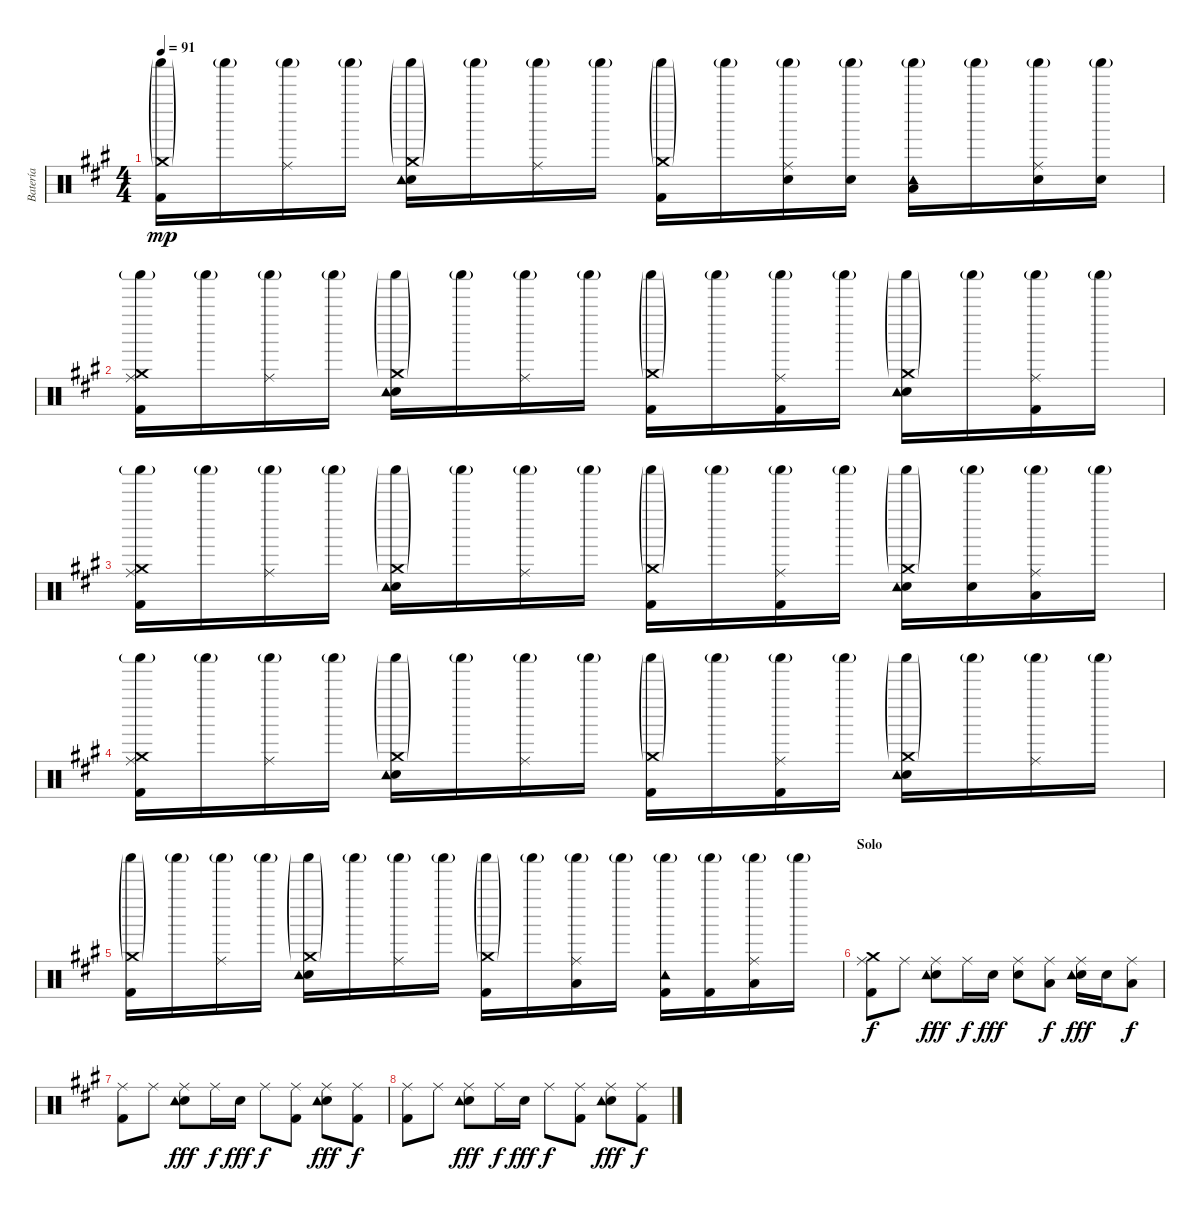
\track ("Batería" "Batería") {instrument percussion}
\staff {score}
\articulation defaults
\ts (4 4)
\tempo 91
\clef neutral
\ks a
("Kick (hit) 2" "Crash medium (hit)"{g} "Shaker (hit)"{g}).16{dy mp} "Shaker (hit)"{g}.16 ("Ride (middle)" "Shaker (hit)"{g}).16 "Shaker (hit)"{g}.16 ("Electric Snare (hit)" "Crash medium (hit)"{g} "Tambourine (hit)" "Shaker (hit)"{g}).16 "Shaker (hit)"{g}.16 ("Ride (middle)" "Shaker (hit)"{g}).16 "Shaker (hit)"{g}.16 ("Kick (hit) 2" "Crash medium (hit)"{g} "Shaker (hit)"{g}).16 "Shaker (hit)"{g}.16 ("Electric Snare (hit)" "Ride (middle)" "Shaker (hit)"{g}).16 ("Electric Snare (hit)" "Shaker (hit)"{g}).16 ("Low Tom (hit)" "Tambourine (hit)" "Shaker (hit)"{g}).16 "Shaker (hit)"{g}.16 ("Electric Snare (hit)" "Ride (middle)" "Shaker (hit)"{g}).16 ("Electric Snare (hit)" "Shaker (hit)"{g}).16 |
("Kick (hit) 2" "Ride (middle)" "Crash medium (hit)" "Shaker (hit)"{g}).16 "Shaker (hit)"{g}.16 ("Ride (middle)" "Shaker (hit)"{g}).16 "Shaker (hit)"{g}.16 ("Electric Snare (hit)" "Crash medium (hit)"{g} "Tambourine (hit)" "Shaker (hit)"{g}).16 "Shaker (hit)"{g}.16 ("Ride (middle)" "Shaker (hit)"{g}).16 "Shaker (hit)"{g}.16 ("Kick (hit) 2" "Crash medium (hit)"{g} "Shaker (hit)"{g}).16 "Shaker (hit)"{g}.16 ("Kick (hit) 2" "Ride (middle)" "Shaker (hit)"{g}).16 "Shaker (hit)"{g}.16 ("Electric Snare (hit)" "Crash medium (hit)"{g} "Tambourine (hit)" "Shaker (hit)"{g}).16 "Shaker (hit)"{g}.16 ("Kick (hit) 2" "Ride (middle)" "Shaker (hit)"{g}).16 "Shaker (hit)"{g}.16 |
("Kick (hit) 2" "Ride (middle)" "Crash medium (hit)" "Shaker (hit)"{g}).16 "Shaker (hit)"{g}.16 ("Ride (middle)" "Shaker (hit)"{g}).16 "Shaker (hit)"{g}.16 ("Electric Snare (hit)" "Crash medium (hit)"{g} "Tambourine (hit)" "Shaker (hit)"{g}).16 "Shaker (hit)"{g}.16 ("Ride (middle)" "Shaker (hit)"{g}).16 "Shaker (hit)"{g}.16 ("Kick (hit) 2" "Crash medium (hit)"{g} "Shaker (hit)"{g}).16 "Shaker (hit)"{g}.16 ("Kick (hit) 2" "Ride (middle)" "Shaker (hit)"{g}).16 "Shaker (hit)"{g}.16 ("Electric Snare (hit)" "Crash medium (hit)"{g} "Tambourine (hit)" "Shaker (hit)"{g}).16 ("Electric Snare (hit)" "Shaker (hit)"{g}).16 ("Ride (middle)" "Low Tom (hit)" "Shaker (hit)"{g}).16 "Shaker (hit)"{g}.16 |
("Kick (hit) 2" "Ride (middle)" "Crash medium (hit)" "Shaker (hit)"{g}).16 "Shaker (hit)"{g}.16 ("Ride (middle)" "Shaker (hit)"{g}).16 "Shaker (hit)"{g}.16 ("Electric Snare (hit)" "Crash medium (hit)"{g} "Tambourine (hit)" "Shaker (hit)"{g}).16 "Shaker (hit)"{g}.16 ("Ride (middle)" "Shaker (hit)"{g}).16 "Shaker (hit)"{g}.16 ("Kick (hit) 2" "Crash medium (hit)"{g} "Shaker (hit)"{g}).16 "Shaker (hit)"{g}.16 ("Kick (hit) 2" "Ride (middle)" "Shaker (hit)"{g}).16 "Shaker (hit)"{g}.16 ("Electric Snare (hit)" "Crash medium (hit)"{g} "Tambourine (hit)" "Shaker (hit)"{g}).16 "Shaker (hit)"{g}.16 ("Ride (middle)" "Shaker (hit)"{g}).16 "Shaker (hit)"{g}.16 |
("Kick (hit) 2" "Crash medium (hit)"{g} "Shaker (hit)"{g}).16 "Shaker (hit)"{g}.16 ("Ride (middle)" "Shaker (hit)"{g}).16 "Shaker (hit)"{g}.16 ("Electric Snare (hit)" "Crash medium (hit)"{g} "Tambourine (hit)" "Shaker (hit)"{g}).16 "Shaker (hit)"{g}.16 ("Ride (middle)" "Shaker (hit)"{g}).16 "Shaker (hit)"{g}.16 ("Kick (hit) 2" "Crash medium (hit)"{g} "Shaker (hit)"{g}).16 "Shaker (hit)"{g}.16 ("Ride (middle)" "Low Tom (hit)" "Shaker (hit)"{g}).16 "Shaker (hit)"{g}.16 ("Kick (hit) 2" "Tambourine (hit)" "Shaker (hit)"{g}).16 ("Kick (hit) 2" "Shaker (hit)"{g}).16 ("Ride (middle)" "Low Tom (hit)" "Shaker (hit)"{g}).16 "Shaker (hit)"{g}.16 |
\section ("" "Solo")
("Kick (hit) 2" "Ride (middle)" "Crash medium (hit)").8{dy f} "Ride (middle)".8 ("Electric Snare (hit)" "Ride (middle)" "Tambourine (hit)").8{dy fff} "Ride (middle)".16{dy f} "Electric Snare (hit)".16{dy fff} ("Electric Snare (hit)" "Ride (middle)").8 ("Ride (middle)" "Low Tom (hit)").8{dy f} ("Electric Snare (hit)" "Ride (middle)" "Tambourine (hit)").16{dy fff} "Electric Snare (hit)".16 ("Ride (middle)" "Low Tom (hit)").8{dy f} |
("Kick (hit) 2" "Ride (middle)").8 "Ride (middle)".8 ("Electric Snare (hit)" "Ride (middle)" "Tambourine (hit)").8{dy fff} "Ride (middle)".16{dy f} "Electric Snare (hit)".16{dy fff} "Ride (middle)".8{dy f} ("Kick (hit) 2" "Ride (middle)").8 ("Electric Snare (hit)" "Ride (middle)" "Tambourine (hit)").8{dy fff} ("Kick (hit) 2" "Ride (middle)").8{dy f} |
("Kick (hit) 2" "Ride (middle)").8 "Ride (middle)".8 ("Electric Snare (hit)" "Ride (middle)" "Tambourine (hit)").8{dy fff} "Ride (middle)".16{dy f} "Electric Snare (hit)".16{dy fff} "Ride (middle)".8{dy f} ("Kick (hit) 2" "Ride (middle)").8 ("Electric Snare (hit)" "Ride (middle)" "Tambourine (hit)").8{dy fff} ("Kick (hit) 2" "Ride (middle)").8{dy f}
